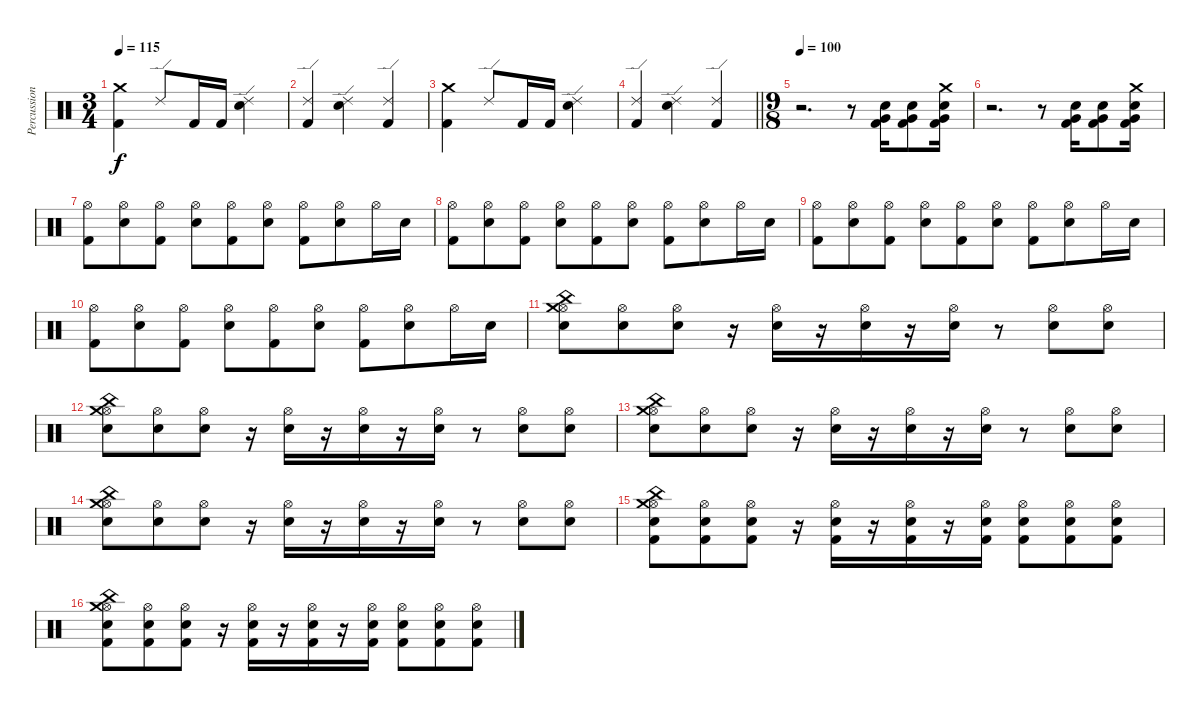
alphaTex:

\track ("Percussion" "Percussion") {instrument percussion}
\staff {score}
\articulation defaults
\ts (3 4)
\tempo 115
\clef neutral
\ks c
("Crash medium (hit)" "Kick (hit) 2").4{dy f} "Ride (edge) 2".8 "Kick (hit) 2".16 "Kick (hit) 2".16 ("Ride (edge) 2" "Electric Snare (hit)").4 |
("Ride (edge) 2" "Kick (hit) 2").4 ("Ride (edge) 2" "Electric Snare (hit)").4 ("Ride (edge) 2" "Kick (hit) 2").4 |
("Crash medium (hit)" "Kick (hit) 2").4 "Ride (edge) 2".8 "Kick (hit) 2".16 "Kick (hit) 2".16 ("Ride (edge) 2" "Electric Snare (hit)").4 |
\barLineRight lightlight
("Ride (edge) 2" "Kick (hit) 2").4 ("Ride (edge) 2" "Electric Snare (hit)").4 ("Ride (edge) 2" "Kick (hit) 2").4 |
\ts (9 8)
\tempo 100
r.2{d} r.8 ("Electric Snare (hit)" "Very Low Tom (hit)" "Kick (hit) 2").16 ("Electric Snare (hit)" "Very Low Tom (hit)" "Kick (hit) 2").8 ("Crash medium (hit)" "Electric Snare (hit)" "Very Low Tom (hit)" "Kick (hit) 2").16 |
r.2{d} r.8 ("Electric Snare (hit)" "Very Low Tom (hit)" "Kick (hit) 2").16 ("Electric Snare (hit)" "Very Low Tom (hit)" "Kick (hit) 2").8 ("Crash medium (hit)" "Electric Snare (hit)" "Very Low Tom (hit)" "Kick (hit) 2").16 |
("Hi-Hat (open)" "Kick (hit) 2").8 ("Hi-Hat (open)" "Electric Snare (hit)").8 ("Hi-Hat (open)" "Kick (hit) 2").8 ("Hi-Hat (open)" "Electric Snare (hit)").8 ("Hi-Hat (open)" "Kick (hit) 2").8 ("Hi-Hat (open)" "Electric Snare (hit)").8 ("Hi-Hat (open)" "Kick (hit) 2").8 ("Hi-Hat (open)" "Electric Snare (hit)").8 "Hi-Hat (open)".16 "Electric Snare (hit)".16 |
("Hi-Hat (open)" "Kick (hit) 2").8 ("Hi-Hat (open)" "Electric Snare (hit)").8 ("Hi-Hat (open)" "Kick (hit) 2").8 ("Hi-Hat (open)" "Electric Snare (hit)").8 ("Hi-Hat (open)" "Kick (hit) 2").8 ("Hi-Hat (open)" "Electric Snare (hit)").8 ("Hi-Hat (open)" "Kick (hit) 2").8 ("Hi-Hat (open)" "Electric Snare (hit)").8 "Hi-Hat (open)".16 "Electric Snare (hit)".16 |
("Hi-Hat (open)" "Kick (hit) 2").8 ("Hi-Hat (open)" "Electric Snare (hit)").8 ("Hi-Hat (open)" "Kick (hit) 2").8 ("Hi-Hat (open)" "Electric Snare (hit)").8 ("Hi-Hat (open)" "Kick (hit) 2").8 ("Hi-Hat (open)" "Electric Snare (hit)").8 ("Hi-Hat (open)" "Kick (hit) 2").8 ("Hi-Hat (open)" "Electric Snare (hit)").8 "Hi-Hat (open)".16 "Electric Snare (hit)".16 |
("Hi-Hat (open)" "Kick (hit) 2").8 ("Hi-Hat (open)" "Electric Snare (hit)").8 ("Hi-Hat (open)" "Kick (hit) 2").8 ("Hi-Hat (open)" "Electric Snare (hit)").8 ("Hi-Hat (open)" "Kick (hit) 2").8 ("Hi-Hat (open)" "Electric Snare (hit)").8 ("Hi-Hat (open)" "Kick (hit) 2").8 ("Hi-Hat (open)" "Electric Snare (hit)").8 "Hi-Hat (open)".16 "Electric Snare (hit)".16 |
("Hi-Hat (open)" "Crash medium (hit)" "Electric Snare (hit)" "China (hit)").8 ("Hi-Hat (open)" "Electric Snare (hit)").8 ("Hi-Hat (open)" "Electric Snare (hit)").8 r.16 ("Hi-Hat (open)" "Electric Snare (hit)").16 r.16 ("Hi-Hat (open)" "Electric Snare (hit)").16 r.16 ("Hi-Hat (open)" "Electric Snare (hit)").16 r.8 ("Hi-Hat (open)" "Electric Snare (hit)").8 ("Hi-Hat (open)" "Electric Snare (hit)").8 |
("Hi-Hat (open)" "Crash medium (hit)" "Electric Snare (hit)" "China (hit)").8 ("Hi-Hat (open)" "Electric Snare (hit)").8 ("Hi-Hat (open)" "Electric Snare (hit)").8 r.16 ("Hi-Hat (open)" "Electric Snare (hit)").16 r.16 ("Hi-Hat (open)" "Electric Snare (hit)").16 r.16 ("Hi-Hat (open)" "Electric Snare (hit)").16 r.8 ("Hi-Hat (open)" "Electric Snare (hit)").8 ("Hi-Hat (open)" "Electric Snare (hit)").8 |
("Hi-Hat (open)" "Crash medium (hit)" "Electric Snare (hit)" "China (hit)").8 ("Hi-Hat (open)" "Electric Snare (hit)").8 ("Hi-Hat (open)" "Electric Snare (hit)").8 r.16 ("Hi-Hat (open)" "Electric Snare (hit)").16 r.16 ("Hi-Hat (open)" "Electric Snare (hit)").16 r.16 ("Hi-Hat (open)" "Electric Snare (hit)").16 r.8 ("Hi-Hat (open)" "Electric Snare (hit)").8 ("Hi-Hat (open)" "Electric Snare (hit)").8 |
("Hi-Hat (open)" "Crash medium (hit)" "Electric Snare (hit)" "China (hit)").8 ("Hi-Hat (open)" "Electric Snare (hit)").8 ("Hi-Hat (open)" "Electric Snare (hit)").8 r.16 ("Hi-Hat (open)" "Electric Snare (hit)").16 r.16 ("Hi-Hat (open)" "Electric Snare (hit)").16 r.16 ("Hi-Hat (open)" "Electric Snare (hit)").16 r.8 ("Hi-Hat (open)" "Electric Snare (hit)").8 ("Hi-Hat (open)" "Electric Snare (hit)").8 |
("Hi-Hat (open)" "Crash medium (hit)" "Electric Snare (hit)" "China (hit)" "Kick (hit) 2").8 ("Hi-Hat (open)" "Electric Snare (hit)" "Kick (hit) 2").8 ("Hi-Hat (open)" "Electric Snare (hit)" "Kick (hit) 2").8 r.16 ("Hi-Hat (open)" "Electric Snare (hit)" "Kick (hit) 2").16 r.16 ("Hi-Hat (open)" "Electric Snare (hit)" "Kick (hit) 2").16 r.16 ("Hi-Hat (open)" "Electric Snare (hit)" "Kick (hit) 2").16 ("Hi-Hat (open)" "Electric Snare (hit)" "Kick (hit) 2").8 ("Hi-Hat (open)" "Electric Snare (hit)" "Kick (hit) 2").8 ("Hi-Hat (open)" "Electric Snare (hit)" "Kick (hit) 2").8 |
("Hi-Hat (open)" "Crash medium (hit)" "Electric Snare (hit)" "China (hit)" "Kick (hit) 2").8 ("Hi-Hat (open)" "Electric Snare (hit)" "Kick (hit) 2").8 ("Hi-Hat (open)" "Electric Snare (hit)" "Kick (hit) 2").8 r.16 ("Hi-Hat (open)" "Electric Snare (hit)" "Kick (hit) 2").16 r.16 ("Hi-Hat (open)" "Electric Snare (hit)" "Kick (hit) 2").16 r.16 ("Hi-Hat (open)" "Electric Snare (hit)" "Kick (hit) 2").16 ("Hi-Hat (open)" "Electric Snare (hit)" "Kick (hit) 2").8 ("Hi-Hat (open)" "Electric Snare (hit)" "Kick (hit) 2").8 ("Hi-Hat (open)" "Electric Snare (hit)" "Kick (hit) 2").8
